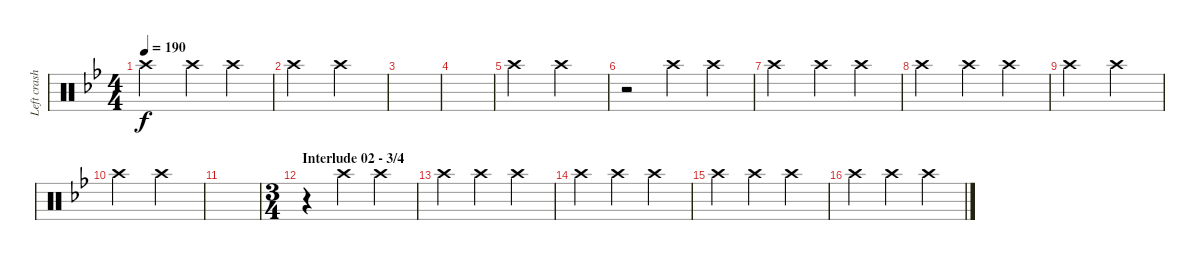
\track ("Left crash" "Left crash") {instrument percussion}
\staff {score}
\articulation defaults
\ts (4 4)
\tempo 190
\clef neutral
\ks bb "Crash high (hit)".2{dy f} "Crash high (hit)".4 "Crash high (hit)".4
|
"Crash high (hit)".2 "Crash high (hit)".2 |
|
|
"Crash high (hit)".2 "Crash high (hit)".2 |
r.2 "Crash high (hit)".4 "Crash high (hit)".4 |
"Crash high (hit)".2 "Crash high (hit)".4 "Crash high (hit)".4 |
"Crash high (hit)".2 "Crash high (hit)".4 "Crash high (hit)".4 |
"Crash high (hit)".2 "Crash high (hit)".2 |
"Crash high (hit)".2 "Crash high (hit)".2 |
|
\ts (3 4)
\section ("" "Interlude 02 - 3/4")
r.4 "Crash high (hit)".4 "Crash high (hit)".4 |
"Crash high (hit)".4 "Crash high (hit)".4 "Crash high (hit)".4 |
"Crash high (hit)".4 "Crash high (hit)".4 "Crash high (hit)".4 |
"Crash high (hit)".4 "Crash high (hit)".4 "Crash high (hit)".4 |
"Crash high (hit)".4 "Crash high (hit)".4 "Crash high (hit)".4
